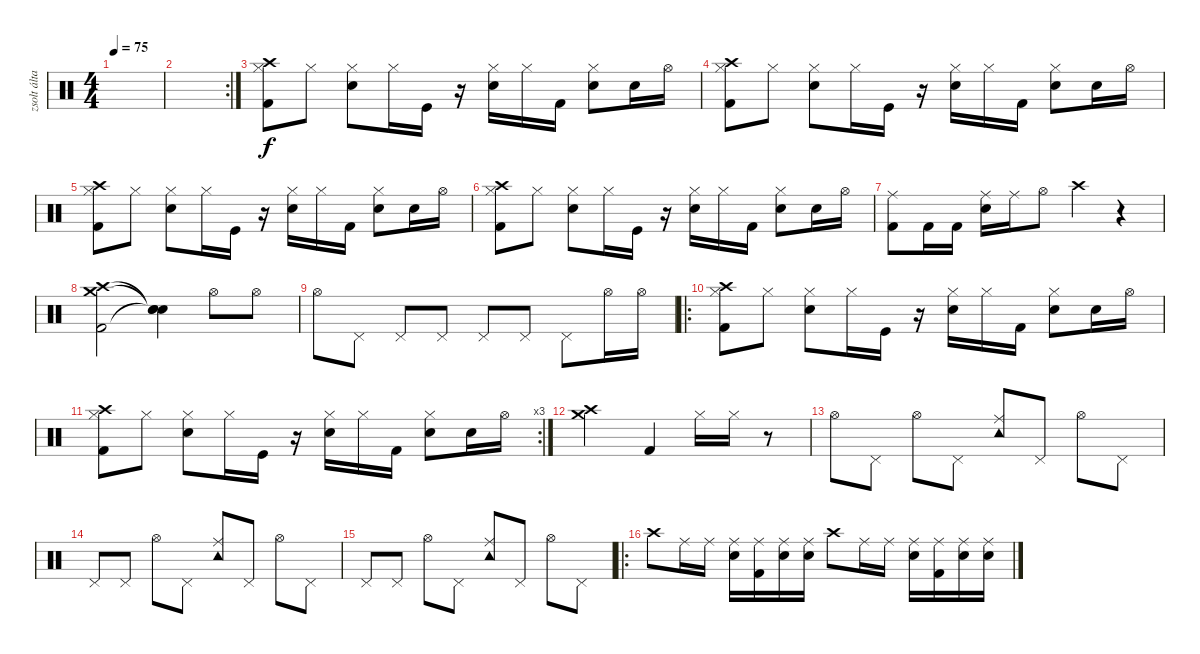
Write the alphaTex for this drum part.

\track ("zsolt által javított!!!!" "zsolt álta") {instrument percussion}
\staff {score}
\articulation defaults
\ts (4 4)
\tempo 75
\clef neutral
\ks c
|
\rc 2
|
("Hi-Hat (closed)" "Kick (hit) 2" "Crash high (hit)").8 "Hi-Hat (closed)".8 ("Hi-Hat (closed)" "Snare (hit) 2").8 "Hi-Hat (closed)".16 "Kick (hit)".16 r.16 ("Snare (hit) 2" "Hi-Hat (closed)").16 "Hi-Hat (closed)".16 "Kick (hit) 2".16 ("Snare (hit) 2" "Hi-Hat (closed)").8 "Snare (hit) 2".16 "Hi-Hat (open)".16 |
("Hi-Hat (closed)" "Kick (hit) 2" "Crash high (hit)").8 "Hi-Hat (closed)".8 ("Hi-Hat (closed)" "Snare (hit) 2").8 "Hi-Hat (closed)".16 "Kick (hit)".16 r.16 ("Snare (hit) 2" "Hi-Hat (closed)").16 "Hi-Hat (closed)".16 "Kick (hit) 2".16 ("Snare (hit) 2" "Hi-Hat (closed)").8 "Snare (hit) 2".16 "Hi-Hat (open)".16 |
("Hi-Hat (closed)" "Kick (hit) 2" "Crash high (hit)").8 "Hi-Hat (closed)".8 ("Hi-Hat (closed)" "Snare (hit) 2").8 "Hi-Hat (closed)".16 "Kick (hit)".16 r.16 ("Snare (hit) 2" "Hi-Hat (closed)").16 "Hi-Hat (closed)".16 "Kick (hit) 2".16 ("Snare (hit) 2" "Hi-Hat (closed)").8 "Snare (hit) 2".16 "Hi-Hat (open)".16 |
("Hi-Hat (closed)" "Kick (hit) 2" "Crash high (hit)").8 "Hi-Hat (closed)".8 ("Hi-Hat (closed)" "Snare (hit) 2").8 "Hi-Hat (closed)".16 "Kick (hit)".16 r.16 ("Snare (hit) 2" "Hi-Hat (closed)").16 "Hi-Hat (closed)".16 "Kick (hit) 2".16 ("Snare (hit) 2" "Hi-Hat (closed)").8 "Snare (hit) 2".16 "Hi-Hat (open)".16 |
("Ride (middle)" "Kick (hit) 2").8 "Kick (hit) 2".16 "Kick (hit) 2".16 ("Ride (middle)" "Snare (hit) 2").16 "Ride (middle)".16 "Hi-Hat (open)".8 "Crash high (hit)".4 r.4 |
("Crash high (hit)" "Crash medium (hit)" "Kick (hit) 2").2 ("Snare (hit)"{t} "Snare (hit)"{t} "Snare (hit)"{t}).4 "Hi-Hat (open)".8 "Hi-Hat (open)".8 |
"Hi-Hat (open)".8 "Pedal Hi-Hat (hit)".8 "Pedal Hi-Hat (hit)".8 "Pedal Hi-Hat (hit)".8 "Pedal Hi-Hat (hit)".8 "Pedal Hi-Hat (hit)".8 "Pedal Hi-Hat (hit)".8 "Hi-Hat (open)".16 "Hi-Hat (open)".16 |
\ro
("Hi-Hat (closed)" "Kick (hit) 2" "Crash high (hit)").8 "Hi-Hat (closed)".8 ("Hi-Hat (closed)" "Snare (hit) 2").8 "Hi-Hat (closed)".16 "Kick (hit)".16 r.16 ("Snare (hit) 2" "Hi-Hat (closed)").16 "Hi-Hat (closed)".16 "Kick (hit) 2".16 ("Snare (hit) 2" "Hi-Hat (closed)").8 "Snare (hit) 2".16 "Hi-Hat (open)".16 |
\rc 3
("Hi-Hat (closed)" "Kick (hit) 2" "Crash high (hit)").8 "Hi-Hat (closed)".8 ("Hi-Hat (closed)" "Snare (hit) 2").8 "Hi-Hat (closed)".16 "Kick (hit)".16 r.16 ("Snare (hit) 2" "Hi-Hat (closed)").16 "Hi-Hat (closed)".16 "Kick (hit) 2".16 ("Snare (hit) 2" "Hi-Hat (closed)").8 "Snare (hit) 2".16 "Hi-Hat (open)".16 |
("Crash high (hit)" "Crash medium (hit)").2 "Kick (hit) 2".4 "Hi-Hat (closed)".16 "Hi-Hat (closed)".16 r.8 |
"Hi-Hat (open)".8 "Pedal Hi-Hat (hit)".8 "Hi-Hat (open)".8 "Pedal Hi-Hat (hit)".8 ("Tambourine (hit)" "Ride (middle)").8 "Pedal Hi-Hat (hit)".8 "Hi-Hat (open)".8 "Pedal Hi-Hat (hit)".8 |
"Pedal Hi-Hat (hit)".8 "Pedal Hi-Hat (hit)".8 "Hi-Hat (open)".8 "Pedal Hi-Hat (hit)".8 ("Ride (middle)" "Tambourine (hit)").8 "Pedal Hi-Hat (hit)".8 "Hi-Hat (open)".8 "Pedal Hi-Hat (hit)".8 |
"Pedal Hi-Hat (hit)".8 "Pedal Hi-Hat (hit)".8 "Hi-Hat (open)".8 "Pedal Hi-Hat (hit)".8 ("Tambourine (hit)" "Ride (middle)").8 "Pedal Hi-Hat (hit)".8 "Hi-Hat (open)".8 "Pedal Hi-Hat (hit)".8 |
\ro "Crash high (hit)".8 "Ride (middle)".16 "Ride (middle)".16
("Ride (middle)" "Snare (hit) 2").16 ("Ride (middle)" "Kick (hit) 2").16 ("Ride (middle)" "Snare (hit) 2").16 ("Ride (middle)" "Snare (hit) 2").16 "Crash high (hit)".8 "Ride (middle)".16 "Ride (middle)".16 ("Ride (middle)" "Snare (hit) 2").16 ("Ride (middle)" "Kick (hit) 2").16 ("Ride (middle)" "Snare (hit) 2").16 ("Ride (middle)" "Snare (hit) 2").16
